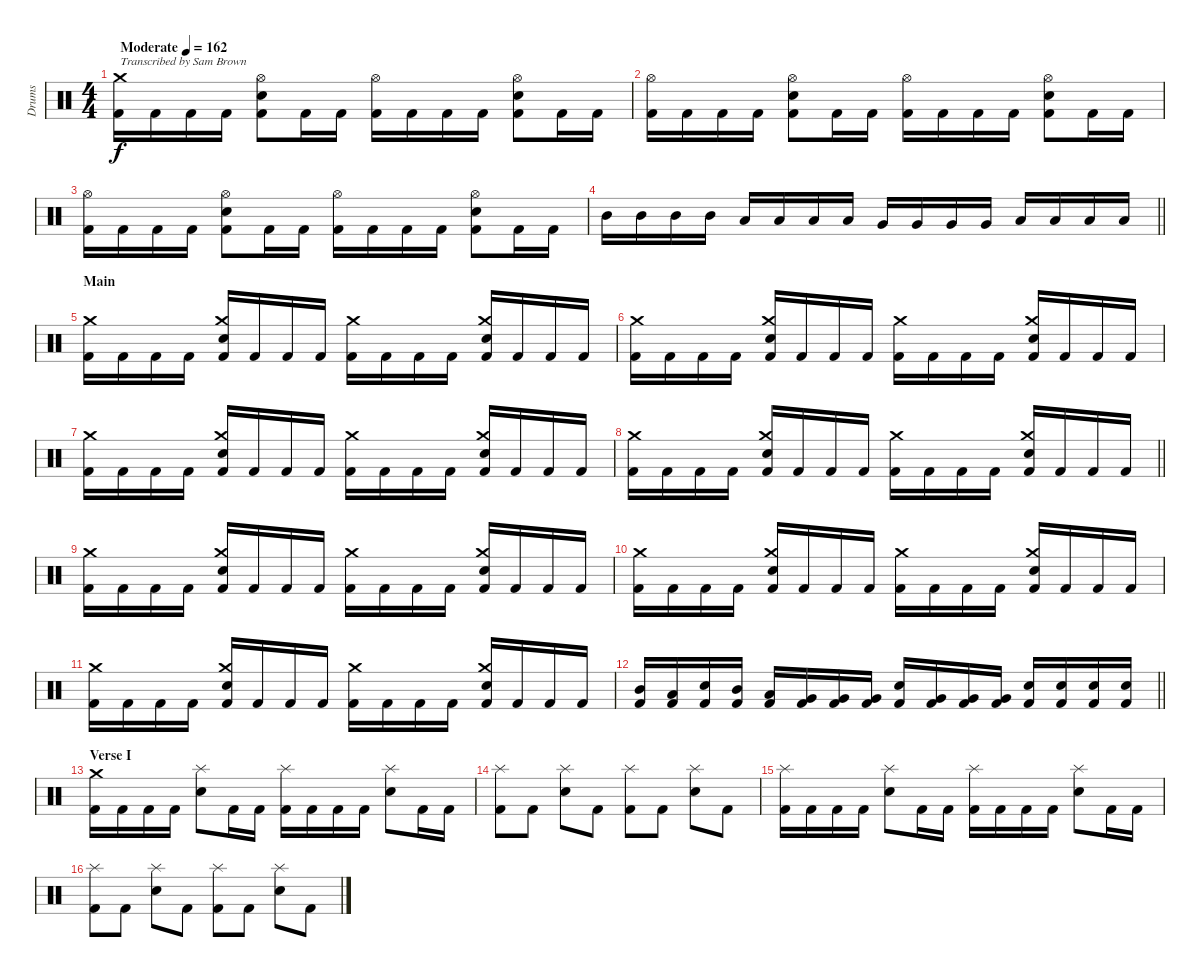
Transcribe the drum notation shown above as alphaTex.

\track ("Drums" "Drums") {instrument percussion}
\staff {score}
\articulation defaults
\ts (4 4)
\tempo (162 "Moderate")
\clef neutral
\ks c
("Kick (hit) 2" "Crash medium (hit)").16{txt "Transcribed by Sam Brown" dy f volume 0} "Kick (hit) 2".16{volume 14} "Kick (hit) 2".16 "Kick (hit) 2".16 ("Kick (hit) 2" "Snare (hit) 2" "Hi-Hat (open)").8 "Kick (hit) 2".16 "Kick (hit) 2".16 ("Kick (hit) 2" "Hi-Hat (open)").16 "Kick (hit) 2".16 "Kick (hit) 2".16 "Kick (hit) 2".16 ("Kick (hit) 2" "Snare (hit) 2" "Hi-Hat (open)").8 "Kick (hit) 2".16 "Kick (hit) 2".16 |
("Kick (hit) 2" "Hi-Hat (open)").16 "Kick (hit) 2".16 "Kick (hit) 2".16 "Kick (hit) 2".16 ("Kick (hit) 2" "Snare (hit) 2" "Hi-Hat (open)").8 "Kick (hit) 2".16 "Kick (hit) 2".16 ("Kick (hit) 2" "Hi-Hat (open)").16 "Kick (hit) 2".16 "Kick (hit) 2".16 "Kick (hit) 2".16 ("Kick (hit) 2" "Snare (hit) 2" "Hi-Hat (open)").8 "Kick (hit) 2".16 "Kick (hit) 2".16 |
("Kick (hit) 2" "Hi-Hat (open)").16 "Kick (hit) 2".16 "Kick (hit) 2".16 "Kick (hit) 2".16 ("Kick (hit) 2" "Snare (hit) 2" "Hi-Hat (open)").8 "Kick (hit) 2".16 "Kick (hit) 2".16 ("Kick (hit) 2" "Hi-Hat (open)").16 "Kick (hit) 2".16 "Kick (hit) 2".16 "Kick (hit) 2".16 ("Kick (hit) 2" "Snare (hit) 2" "Hi-Hat (open)").8 "Kick (hit) 2".16 "Kick (hit) 2".16 |
\barLineRight lightlight "Mid Tom (hit)".16 "Mid Tom (hit)".16 "Mid Tom (hit)".16 "Mid Tom (hit)".16 "Low Tom (hit)".16 "Low Tom (hit)".16 "Low Tom (hit)".16 "Low Tom (hit)".16 "Very Low Tom (hit)".16 "Very Low Tom (hit)".16 "Very Low Tom (hit)".16 "Very Low Tom (hit)".16 "Low Floor Tom (hit)".16 "Low Floor Tom (hit)".16 "Low Floor Tom (hit)".16 "Low Floor Tom (hit)".16
|
\section ("" "Main")
("Kick (hit) 2" "Crash medium (hit)").16 "Kick (hit) 2".16 "Kick (hit) 2".16 "Kick (hit) 2".16 ("Kick (hit) 2" "Snare (hit) 2" "Crash medium (hit)").16 "Kick (hit) 2".16 "Kick (hit) 2".16 "Kick (hit) 2".16 ("Kick (hit) 2" "Crash medium (hit)").16 "Kick (hit) 2".16 "Kick (hit) 2".16 "Kick (hit) 2".16 ("Kick (hit) 2" "Snare (hit) 2" "Crash medium (hit)").16 "Kick (hit) 2".16 "Kick (hit) 2".16 "Kick (hit) 2".16 |
("Kick (hit) 2" "Crash medium (hit)").16 "Kick (hit) 2".16 "Kick (hit) 2".16 "Kick (hit) 2".16 ("Kick (hit) 2" "Snare (hit) 2" "Crash medium (hit)").16 "Kick (hit) 2".16 "Kick (hit) 2".16 "Kick (hit) 2".16 ("Kick (hit) 2" "Crash medium (hit)").16 "Kick (hit) 2".16 "Kick (hit) 2".16 "Kick (hit) 2".16 ("Kick (hit) 2" "Snare (hit) 2" "Crash medium (hit)").16 "Kick (hit) 2".16 "Kick (hit) 2".16 "Kick (hit) 2".16 |
("Kick (hit) 2" "Crash medium (hit)").16 "Kick (hit) 2".16 "Kick (hit) 2".16 "Kick (hit) 2".16 ("Kick (hit) 2" "Snare (hit) 2" "Crash medium (hit)").16 "Kick (hit) 2".16 "Kick (hit) 2".16 "Kick (hit) 2".16 ("Kick (hit) 2" "Crash medium (hit)").16 "Kick (hit) 2".16 "Kick (hit) 2".16 "Kick (hit) 2".16 ("Kick (hit) 2" "Snare (hit) 2" "Crash medium (hit)").16 "Kick (hit) 2".16 "Kick (hit) 2".16 "Kick (hit) 2".16 |
\barLineRight lightlight
("Kick (hit) 2" "Crash medium (hit)").16 "Kick (hit) 2".16 "Kick (hit) 2".16 "Kick (hit) 2".16 ("Kick (hit) 2" "Snare (hit) 2" "Crash medium (hit)").16 "Kick (hit) 2".16 "Kick (hit) 2".16 "Kick (hit) 2".16 ("Kick (hit) 2" "Crash medium (hit)").16 "Kick (hit) 2".16 "Kick (hit) 2".16 "Kick (hit) 2".16 ("Kick (hit) 2" "Snare (hit) 2" "Crash medium (hit)").16 "Kick (hit) 2".16 "Kick (hit) 2".16 "Kick (hit) 2".16 |
\section ("" "")
("Kick (hit) 2" "Crash medium (hit)").16 "Kick (hit) 2".16 "Kick (hit) 2".16 "Kick (hit) 2".16 ("Kick (hit) 2" "Snare (hit) 2" "Crash medium (hit)").16 "Kick (hit) 2".16 "Kick (hit) 2".16 "Kick (hit) 2".16 ("Kick (hit) 2" "Crash medium (hit)").16 "Kick (hit) 2".16 "Kick (hit) 2".16 "Kick (hit) 2".16 ("Kick (hit) 2" "Snare (hit) 2" "Crash medium (hit)").16 "Kick (hit) 2".16 "Kick (hit) 2".16 "Kick (hit) 2".16 |
("Kick (hit) 2" "Crash medium (hit)").16 "Kick (hit) 2".16 "Kick (hit) 2".16 "Kick (hit) 2".16 ("Kick (hit) 2" "Snare (hit) 2" "Crash medium (hit)").16 "Kick (hit) 2".16 "Kick (hit) 2".16 "Kick (hit) 2".16 ("Kick (hit) 2" "Crash medium (hit)").16 "Kick (hit) 2".16 "Kick (hit) 2".16 "Kick (hit) 2".16 ("Kick (hit) 2" "Snare (hit) 2" "Crash medium (hit)").16 "Kick (hit) 2".16 "Kick (hit) 2".16 "Kick (hit) 2".16 |
("Kick (hit) 2" "Crash medium (hit)").16 "Kick (hit) 2".16 "Kick (hit) 2".16 "Kick (hit) 2".16 ("Kick (hit) 2" "Snare (hit) 2" "Crash medium (hit)").16 "Kick (hit) 2".16 "Kick (hit) 2".16 "Kick (hit) 2".16 ("Kick (hit) 2" "Crash medium (hit)").16 "Kick (hit) 2".16 "Kick (hit) 2".16 "Kick (hit) 2".16 ("Kick (hit) 2" "Snare (hit) 2" "Crash medium (hit)").16 "Kick (hit) 2".16 "Kick (hit) 2".16 "Kick (hit) 2".16 |
\barLineRight lightlight
("Kick (hit) 2" "Mid Tom (hit)").16 ("Kick (hit) 2" "Low Tom (hit)").16 ("Kick (hit) 2" "Snare (hit) 2").16 ("Kick (hit) 2" "Mid Tom (hit)").16 ("Kick (hit) 2" "Low Tom (hit)").16 ("Kick (hit) 2" "Very Low Tom (hit)").16 ("Kick (hit) 2" "Very Low Tom (hit)").16 ("Kick (hit) 2" "Very Low Tom (hit)").16 ("Kick (hit) 2" "Snare (hit) 2").16 ("Kick (hit) 2" "Very Low Tom (hit)").16 ("Kick (hit) 2" "Very Low Tom (hit)").16 ("Kick (hit) 2" "Very Low Tom (hit)").16 ("Kick (hit) 2" "Snare (hit) 2").16 ("Kick (hit) 2" "Snare (hit) 2").16 ("Kick (hit) 2" "Snare (hit) 2").16 ("Kick (hit) 2" "Snare (hit) 2").16 |
\section ("" "Verse I")
("Kick (hit) 2" "Crash medium (hit)").16 "Kick (hit) 2".16 "Kick (hit) 2".16 "Kick (hit) 2".16 ("Snare (hit) 2" "Splash (hit)").8 "Kick (hit) 2".16 "Kick (hit) 2".16 ("Kick (hit) 2" "Splash (hit)").16 "Kick (hit) 2".16 "Kick (hit) 2".16 "Kick (hit) 2".16 ("Snare (hit) 2" "Splash (hit)").8 "Kick (hit) 2".16 "Kick (hit) 2".16 |
("Kick (hit) 2" "Splash (hit)").8 "Kick (hit) 2".8 ("Snare (hit) 2" "Splash (hit)").8 "Kick (hit) 2".8 ("Kick (hit) 2" "Splash (hit)").8 "Kick (hit) 2".8 ("Snare (hit) 2" "Splash (hit)").8 "Kick (hit) 2".8 |
("Kick (hit) 2" "Splash (hit)").16 "Kick (hit) 2".16 "Kick (hit) 2".16 "Kick (hit) 2".16 ("Snare (hit) 2" "Splash (hit)").8 "Kick (hit) 2".16 "Kick (hit) 2".16 ("Kick (hit) 2" "Splash (hit)").16 "Kick (hit) 2".16 "Kick (hit) 2".16 "Kick (hit) 2".16 ("Snare (hit) 2" "Splash (hit)").8 "Kick (hit) 2".16 "Kick (hit) 2".16 |
("Kick (hit) 2" "Splash (hit)").8 "Kick (hit) 2".8 ("Snare (hit) 2" "Splash (hit)").8 "Kick (hit) 2".8 ("Kick (hit) 2" "Splash (hit)").8 "Kick (hit) 2".8 ("Snare (hit) 2" "Splash (hit)").8 "Kick (hit) 2".8
